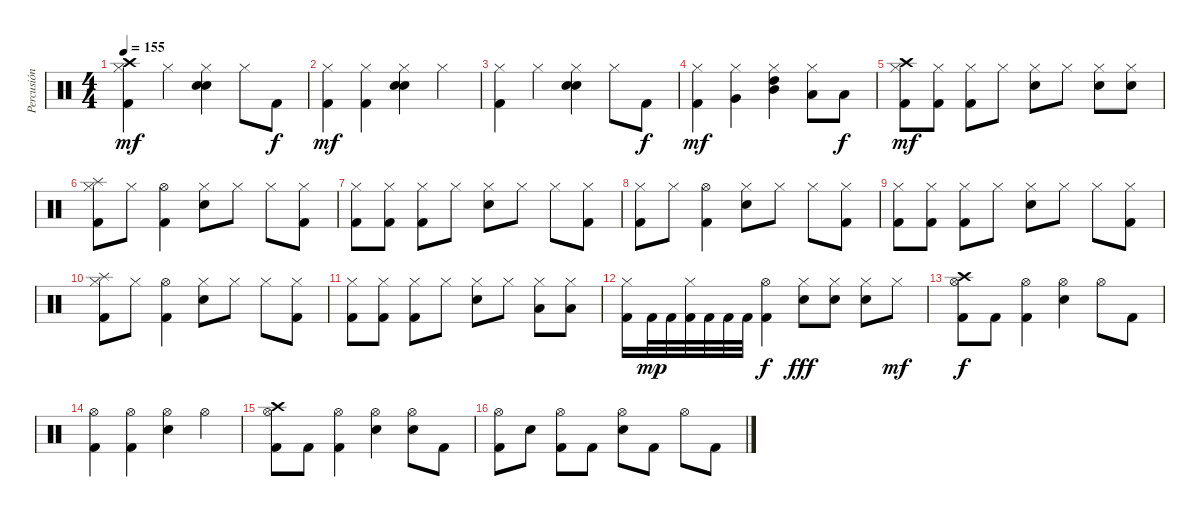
\track ("Percusión" "Percusión") {instrument percussion}
\staff {score}
\articulation defaults
\ts (4 4)
\tempo 155
\clef neutral
\ks c
("Crash high (hit)" "Hi-Hat (closed)" "Kick (hit) 2").4{dy mf} "Hi-Hat (closed)".4 ("Hi-Hat (closed)" "Electric Snare (hit)" "Hand Clap (hit)").4 "Hi-Hat (closed)".8 "Kick (hit) 2".8{dy f} |
("Hi-Hat (closed)" "Kick (hit) 2").4{dy mf} ("Hi-Hat (closed)" "Kick (hit) 2").4 ("Hi-Hat (closed)" "Electric Snare (hit)" "Hand Clap (hit)").4 "Hi-Hat (closed)".4 |
("Hi-Hat (closed)" "Kick (hit) 2").4 "Hi-Hat (closed)".4 ("Hi-Hat (closed)" "Electric Snare (hit)" "Hand Clap (hit)").4 "Hi-Hat (closed)".8 "Kick (hit) 2".8{dy f} |
("Hi-Hat (closed)" "Kick (hit) 2").4{dy mf} ("Hi-Hat (closed)" "Very Low Tom (hit)").4 ("Hi-Hat (closed)" "High Tom (hit)" "Mid Tom (hit)").4 ("Hi-Hat (closed)" "Low Floor Tom (hit)").8 "Low Floor Tom (hit)".8{dy f} |
("Crash high (hit)" "Hi-Hat (closed)" "Kick (hit) 2").8{dy mf} ("Hi-Hat (closed)" "Kick (hit) 2").8 ("Hi-Hat (closed)" "Kick (hit) 2").8 "Hi-Hat (closed)".8 ("Hi-Hat (closed)" "Electric Snare (hit)").8 "Hi-Hat (closed)".8 ("Hi-Hat (closed)" "Electric Snare (hit)").8 ("Hi-Hat (closed)" "Electric Snare (hit)").8 |
("Splash (hit)" "Hi-Hat (closed)" "Kick (hit) 2").8 "Hi-Hat (closed)".8 ("Hi-Hat (open)" "Kick (hit) 2").4 ("Hi-Hat (closed)" "Electric Snare (hit)").8 "Hi-Hat (closed)".8 "Hi-Hat (closed)".8 ("Hi-Hat (closed)" "Kick (hit) 2").8 |
("Hi-Hat (closed)" "Kick (hit) 2").8 ("Hi-Hat (closed)" "Kick (hit) 2").8 ("Hi-Hat (closed)" "Kick (hit) 2").8 "Hi-Hat (closed)".8 ("Hi-Hat (closed)" "Electric Snare (hit)").8 "Hi-Hat (closed)".8 "Hi-Hat (closed)".8 ("Hi-Hat (closed)" "Kick (hit) 2").8 |
("Hi-Hat (closed)" "Kick (hit) 2").8 "Hi-Hat (closed)".8 ("Hi-Hat (open)" "Kick (hit) 2").4 ("Hi-Hat (closed)" "Electric Snare (hit)").8 "Hi-Hat (closed)".8 "Hi-Hat (closed)".8 ("Hi-Hat (closed)" "Kick (hit) 2").8 |
("Hi-Hat (closed)" "Kick (hit) 2").8 ("Hi-Hat (closed)" "Kick (hit) 2").8 ("Hi-Hat (closed)" "Kick (hit) 2").8 "Hi-Hat (closed)".8 ("Hi-Hat (closed)" "Electric Snare (hit)").8 "Hi-Hat (closed)".8 "Hi-Hat (closed)".8 ("Hi-Hat (closed)" "Kick (hit) 2").8 |
("Splash (hit)" "Hi-Hat (closed)" "Kick (hit) 2").8 "Hi-Hat (closed)".8 ("Hi-Hat (open)" "Kick (hit) 2").4 ("Hi-Hat (closed)" "Electric Snare (hit)").8 "Hi-Hat (closed)".8 "Hi-Hat (closed)".8 ("Hi-Hat (closed)" "Kick (hit) 2").8 |
("Hi-Hat (closed)" "Kick (hit) 2").8 ("Hi-Hat (closed)" "Kick (hit) 2").8 ("Hi-Hat (closed)" "Kick (hit) 2").8 "Hi-Hat (closed)".8 ("Hi-Hat (closed)" "Electric Snare (hit)").8 "Hi-Hat (closed)".8 ("Hi-Hat (closed)" "Low Tom (hit)").8 ("Hi-Hat (closed)" "Low Tom (hit)").8 |
("Hi-Hat (closed)" "Kick (hit) 2").16 "Kick (hit) 2".32{dy mp} "Kick (hit) 2".32 ("Hi-Hat (closed)" "Kick (hit) 2").32 "Kick (hit) 2".32 "Kick (hit) 2".32 "Kick (hit) 2".32 ("Hi-Hat (open)" "Kick (hit) 2").4{dy f} ("Hi-Hat (closed)" "Electric Snare (hit)").8{dy fff} ("Hi-Hat (closed)" "Electric Snare (hit)").8 ("Hi-Hat (closed)" "Electric Snare (hit)").8 "Hi-Hat (closed)".8{dy mf} |
("Crash high (hit)" "Hi-Hat (open)" "Kick (hit) 2").8{dy f} "Kick (hit) 2".8 ("Hi-Hat (open)" "Kick (hit) 2").4 ("Hi-Hat (open)" "Snare (hit) 2").4 "Hi-Hat (open)".8 "Kick (hit) 2".8 |
("Hi-Hat (open)" "Kick (hit) 2").4 ("Hi-Hat (open)" "Kick (hit) 2").4 ("Hi-Hat (open)" "Snare (hit) 2").4 "Hi-Hat (open)".4 |
("Crash high (hit)" "Hi-Hat (open)" "Kick (hit) 2").8 "Kick (hit) 2".8 ("Hi-Hat (open)" "Kick (hit) 2").4 ("Hi-Hat (open)" "Snare (hit) 2").4 ("Hi-Hat (open)" "Snare (hit) 2").8 "Kick (hit) 2".8 |
("Hi-Hat (open)" "Kick (hit) 2").8 "Snare (hit) 2".8 ("Hi-Hat (open)" "Kick (hit) 2").8 "Kick (hit) 2".8 ("Hi-Hat (open)" "Snare (hit) 2").8 "Kick (hit) 2".8 "Hi-Hat (open)".8 "Kick (hit) 2".8
